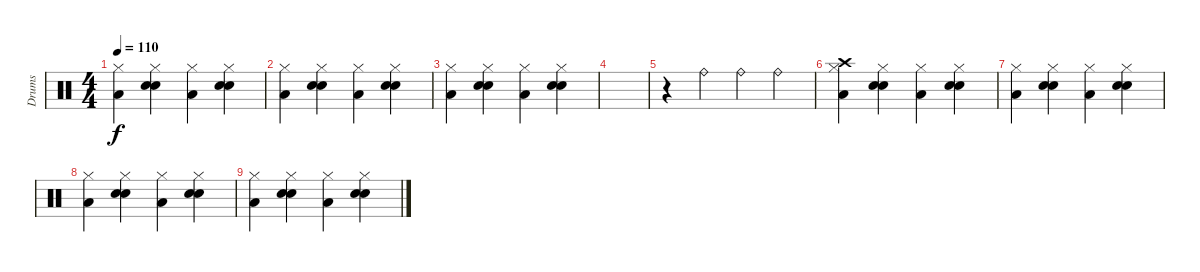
\track ("Drums" "Drums") {instrument percussion}
\staff {score}
\articulation defaults
\ts (4 4)
\tempo 110
\clef neutral
\ks c
("Hi-Hat (closed)" "Low Tom (hit)").4{dy f} ("Hi-Hat (closed)" "Electric Snare (hit)" "Snare (hit) 2").4 ("Hi-Hat (closed)" "Low Tom (hit)").4 ("Hi-Hat (closed)" "Electric Snare (hit)" "Snare (hit) 2").4 |
("Hi-Hat (closed)" "Low Tom (hit)").4 ("Hi-Hat (closed)" "Electric Snare (hit)" "Snare (hit) 2").4 ("Hi-Hat (closed)" "Low Tom (hit)").4 ("Hi-Hat (closed)" "Electric Snare (hit)" "Snare (hit) 2").4 |
("Hi-Hat (closed)" "Low Tom (hit)").4 ("Hi-Hat (closed)" "Electric Snare (hit)" "Snare (hit) 2").4 ("Hi-Hat (closed)" "Low Tom (hit)").4 ("Hi-Hat (closed)" "Electric Snare (hit)" "Snare (hit) 2").4 |
|
r.4 "Ride (bell)".4 "Ride (bell)".4 "Ride (bell)".4 |
("Hi-Hat (closed)" "Low Tom (hit)" "Crash high (hit)").4 ("Hi-Hat (closed)" "Electric Snare (hit)" "Snare (hit) 2").4 ("Hi-Hat (closed)" "Low Tom (hit)").4 ("Hi-Hat (closed)" "Electric Snare (hit)" "Snare (hit) 2").4 |
("Hi-Hat (closed)" "Low Tom (hit)").4 ("Hi-Hat (closed)" "Electric Snare (hit)" "Snare (hit) 2").4 ("Hi-Hat (closed)" "Low Tom (hit)").4 ("Hi-Hat (closed)" "Electric Snare (hit)" "Snare (hit) 2").4 |
("Hi-Hat (closed)" "Low Tom (hit)").4 ("Hi-Hat (closed)" "Electric Snare (hit)" "Snare (hit) 2").4 ("Hi-Hat (closed)" "Low Tom (hit)").4 ("Hi-Hat (closed)" "Electric Snare (hit)" "Snare (hit) 2").4 |
("Hi-Hat (closed)" "Low Tom (hit)").4 ("Hi-Hat (closed)" "Electric Snare (hit)" "Snare (hit) 2").4 ("Hi-Hat (closed)" "Low Tom (hit)").4 ("Hi-Hat (closed)" "Electric Snare (hit)" "Snare (hit) 2").4
